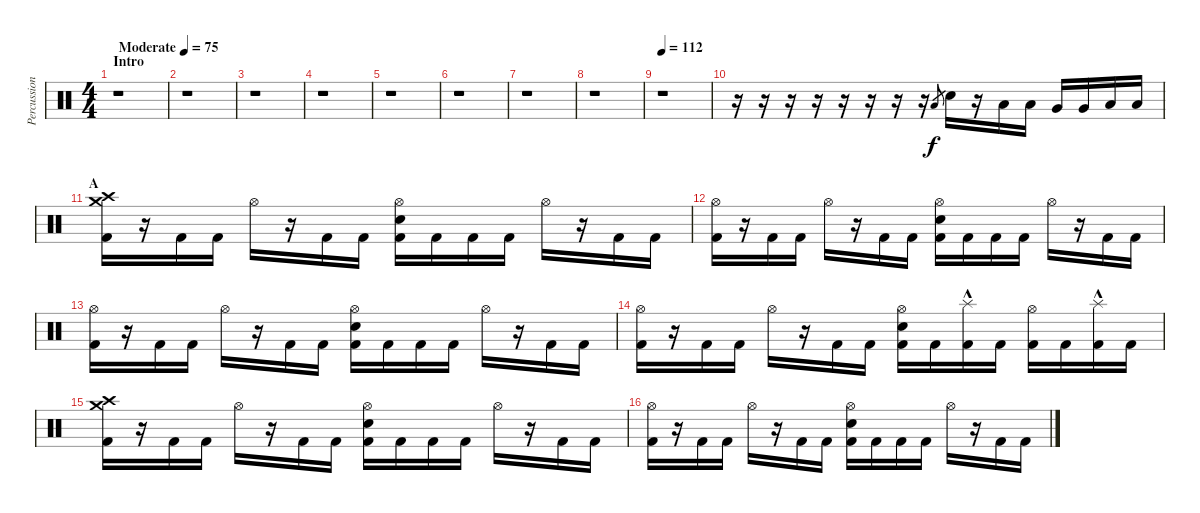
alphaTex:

\track ("Percussion" "Percussion") {instrument percussion}
\staff {score}
\articulation defaults
\ts (4 4)
\section ("" "Intro")
\tempo (75 "Moderate")
\clef neutral
\ks c
r.1{dy f} |
r.1 |
r.1 |
r.1 |
r.1 |
r.1 |
r.1 |
r.1 |
\tempo 112
r.1 |
r.16 r.16 r.16 r.16 r.16 r.16 r.16 r.16 "Low Tom (hit)".8{gr} "Electric Snare (hit)".16 r.16 "Low Tom (hit)".16 "Low Tom (hit)".16 "Very Low Tom (hit)".16 "Very Low Tom (hit)".16 "Low Floor Tom (hit)".16 "Low Floor Tom (hit)".16 |
\section ("" "A")
("Crash medium (hit)" "Crash high (hit)" "Kick (hit) 2").16 r.16 "Kick (hit) 2".16 "Kick (hit) 2".16 "Hi-Hat (open)".16 r.16 "Kick (hit) 2".16 "Kick (hit) 2".16 ("Hi-Hat (open)" "Electric Snare (hit)" "Kick (hit) 2").16 "Kick (hit) 2".16 "Kick (hit) 2".16 "Kick (hit) 2".16 "Hi-Hat (open)".16 r.16 "Kick (hit) 2".16 "Kick (hit) 2".16 |
("Hi-Hat (open)" "Kick (hit) 2").16 r.16 "Kick (hit) 2".16 "Kick (hit) 2".16 "Hi-Hat (open)".16 r.16 "Kick (hit) 2".16 "Kick (hit) 2".16 ("Hi-Hat (open)" "Electric Snare (hit)" "Kick (hit) 2").16 "Kick (hit) 2".16 "Kick (hit) 2".16 "Kick (hit) 2".16 "Hi-Hat (open)".16 r.16 "Kick (hit) 2".16 "Kick (hit) 2".16 |
("Hi-Hat (open)" "Kick (hit) 2").16 r.16 "Kick (hit) 2".16 "Kick (hit) 2".16 "Hi-Hat (open)".16 r.16 "Kick (hit) 2".16 "Kick (hit) 2".16 ("Hi-Hat (open)" "Electric Snare (hit)" "Kick (hit) 2").16 "Kick (hit) 2".16 "Kick (hit) 2".16 "Kick (hit) 2".16 "Hi-Hat (open)".16 r.16 "Kick (hit) 2".16 "Kick (hit) 2".16 |
("Hi-Hat (open)" "Kick (hit) 2").16 r.16 "Kick (hit) 2".16 "Kick (hit) 2".16 "Hi-Hat (open)".16 r.16 "Kick (hit) 2".16 "Kick (hit) 2".16 ("Hi-Hat (open)" "Electric Snare (hit)" "Kick (hit) 2").16 "Kick (hit) 2".16 ("Splash (hit)"{hac} "Kick (hit) 2").16 "Kick (hit) 2".16 ("Hi-Hat (open)" "Kick (hit) 2").16 "Kick (hit) 2".16 ("Splash (hit)"{hac} "Kick (hit) 2").16 "Kick (hit) 2".16 |
("Crash medium (hit)" "Crash high (hit)" "Kick (hit) 2").16 r.16 "Kick (hit) 2".16 "Kick (hit) 2".16 "Hi-Hat (open)".16 r.16 "Kick (hit) 2".16 "Kick (hit) 2".16 ("Hi-Hat (open)" "Electric Snare (hit)" "Kick (hit) 2").16 "Kick (hit) 2".16 "Kick (hit) 2".16 "Kick (hit) 2".16 "Hi-Hat (open)".16 r.16 "Kick (hit) 2".16 "Kick (hit) 2".16 |
("Hi-Hat (open)" "Kick (hit) 2").16 r.16 "Kick (hit) 2".16 "Kick (hit) 2".16 "Hi-Hat (open)".16 r.16 "Kick (hit) 2".16 "Kick (hit) 2".16 ("Hi-Hat (open)" "Electric Snare (hit)" "Kick (hit) 2").16 "Kick (hit) 2".16 "Kick (hit) 2".16 "Kick (hit) 2".16 "Hi-Hat (open)".16 r.16 "Kick (hit) 2".16 "Kick (hit) 2".16
